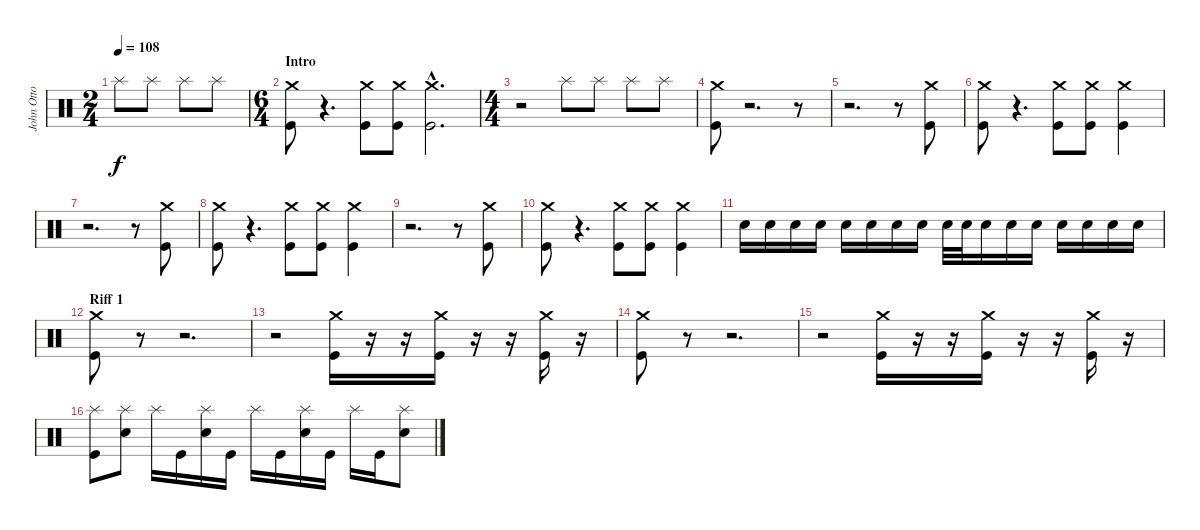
\track ("John Otto" "John Otto") {instrument percussion}
\staff {score}
\articulation defaults
\ts (2 4)
\tempo 108
\clef neutral
\ks c "Splash (hit)".8{dy f} "Splash (hit)".8 "Splash (hit)".8 "Splash (hit)".8
|
\ts (6 4)
\section ("" "Intro")
("Crash medium (hit)" "Kick (hit)").8 r.4{d} ("Crash medium (hit)" "Kick (hit)").8 ("Crash medium (hit)" "Kick (hit)").8 ("Crash medium (hit)"{hac} "Kick (hit)"{hac}).2{d} |
\ts (4 4)
r.2 "Splash (hit)".8 "Splash (hit)".8 "Splash (hit)".8 "Splash (hit)".8 |
("Crash medium (hit)" "Kick (hit)").8 r.2{d} r.8 |
r.2{d} r.8 ("Crash medium (hit)" "Kick (hit)").8 |
("Crash medium (hit)" "Kick (hit)").8 r.4{d} ("Crash medium (hit)" "Kick (hit)").8 ("Crash medium (hit)" "Kick (hit)").8 ("Crash medium (hit)" "Kick (hit)").4 |
r.2{d} r.8 ("Crash medium (hit)" "Kick (hit)").8 |
("Crash medium (hit)" "Kick (hit)").8 r.4{d} ("Crash medium (hit)" "Kick (hit)").8 ("Crash medium (hit)" "Kick (hit)").8 ("Crash medium (hit)" "Kick (hit)").4 |
r.2{d} r.8 ("Crash medium (hit)" "Kick (hit)").8 |
("Crash medium (hit)" "Kick (hit)").8 r.4{d} ("Crash medium (hit)" "Kick (hit)").8 ("Crash medium (hit)" "Kick (hit)").8 ("Crash medium (hit)" "Kick (hit)").4 |
"Electric Snare (hit)".16 "Electric Snare (hit)".16 "Electric Snare (hit)".16 "Electric Snare (hit)".16 "Electric Snare (hit)".16 "Electric Snare (hit)".16 "Electric Snare (hit)".16 "Electric Snare (hit)".16 "Electric Snare (hit)".32 "Electric Snare (hit)".32 "Electric Snare (hit)".16 "Electric Snare (hit)".16 "Electric Snare (hit)".16 "Electric Snare (hit)".16 "Electric Snare (hit)".16 "Electric Snare (hit)".16 "Electric Snare (hit)".16 |
\section ("" "Riff 1")
("Crash medium (hit)" "Kick (hit)").8 r.8 r.2{d} |
r.2 ("Crash medium (hit)" "Kick (hit)").16 r.16 r.16 ("Crash medium (hit)" "Kick (hit)").16 r.16 r.16 ("Crash medium (hit)" "Kick (hit)").16 r.16 |
("Crash medium (hit)" "Kick (hit)").8 r.8 r.2{d} |
r.2 ("Crash medium (hit)" "Kick (hit)").16 r.16 r.16 ("Crash medium (hit)" "Kick (hit)").16 r.16 r.16 ("Crash medium (hit)" "Kick (hit)").16 r.16 |
("Splash (hit)" "Kick (hit)").8 ("Splash (hit)" "Electric Snare (hit)").8 "Splash (hit)".16 "Kick (hit)".16 ("Splash (hit)" "Electric Snare (hit)").16 "Kick (hit)".16 "Splash (hit)".16 "Kick (hit)".16 ("Splash (hit)" "Electric Snare (hit)").16 "Kick (hit)".16 "Splash (hit)".16 "Kick (hit)".16 ("Splash (hit)" "Electric Snare (hit)").8
